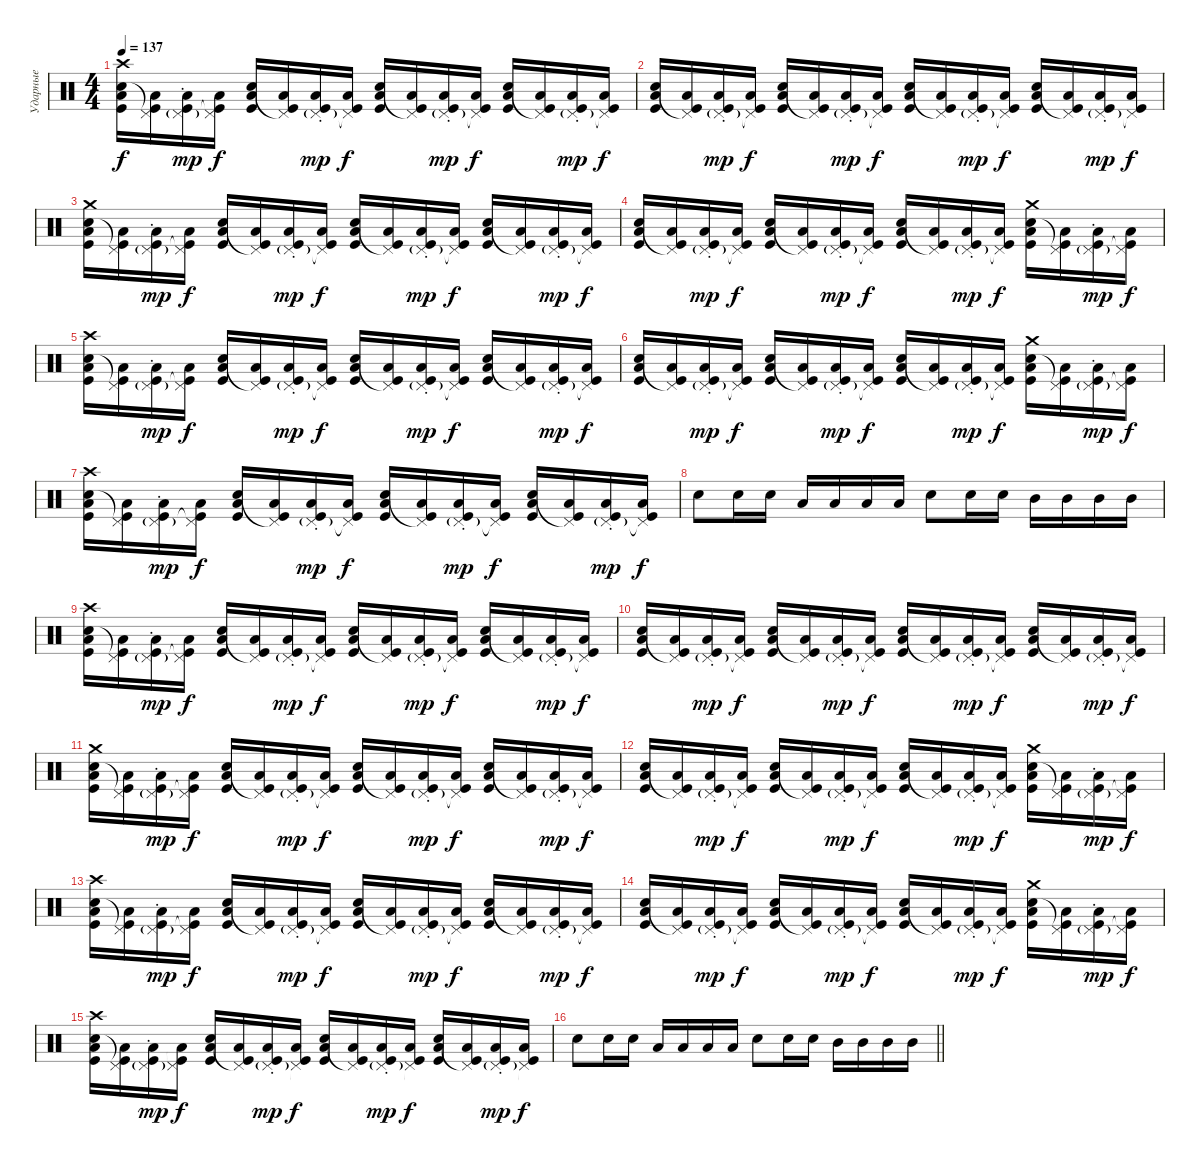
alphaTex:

\track ("Ударные" "Ударные") {instrument percussion}
\staff {score}
\articulation defaults
\ts (4 4)
\tempo 137
\clef neutral
\ks c
("Kick (hit)" "Low Tom (hit)" "Electric Snare (hit)" "Crash high (hit)").16{dy f} ("Kick (hit)" "Low Tom (hit)" "Pedal Hi-Hat (hit)"{t}).16 ("Kick (hit)" "Low Tom (hit)" "Pedal Hi-Hat (hit)"{g st}).16{dy mp} ("Kick (hit)" "Low Tom (hit)" "Pedal Hi-Hat (hit)"{t}).16{dy f} ("Kick (hit)" "Low Tom (hit)" "Electric Snare (hit)").16 ("Kick (hit)" "Low Tom (hit)" "Pedal Hi-Hat (hit)"{t}).16 ("Kick (hit)" "Low Tom (hit)" "Pedal Hi-Hat (hit)"{g st}).16{dy mp} ("Kick (hit)" "Low Tom (hit)" "Pedal Hi-Hat (hit)"{t}).16{dy f} ("Kick (hit)" "Low Tom (hit)" "Electric Snare (hit)").16 ("Kick (hit)" "Low Tom (hit)" "Pedal Hi-Hat (hit)"{t}).16 ("Kick (hit)" "Low Tom (hit)" "Pedal Hi-Hat (hit)"{g st}).16{dy mp} ("Kick (hit)" "Low Tom (hit)" "Pedal Hi-Hat (hit)"{t}).16{dy f} ("Kick (hit)" "Low Tom (hit)" "Electric Snare (hit)").16 ("Kick (hit)" "Low Tom (hit)" "Pedal Hi-Hat (hit)"{t}).16 ("Kick (hit)" "Low Tom (hit)" "Pedal Hi-Hat (hit)"{g st}).16{dy mp} ("Kick (hit)" "Low Tom (hit)" "Pedal Hi-Hat (hit)"{t}).16{dy f} |
("Kick (hit)" "Low Tom (hit)" "Electric Snare (hit)").16 ("Kick (hit)" "Low Tom (hit)" "Pedal Hi-Hat (hit)"{t}).16 ("Kick (hit)" "Low Tom (hit)" "Pedal Hi-Hat (hit)"{g st}).16{dy mp} ("Kick (hit)" "Low Tom (hit)" "Pedal Hi-Hat (hit)"{t}).16{dy f} ("Kick (hit)" "Low Tom (hit)" "Electric Snare (hit)").16 ("Kick (hit)" "Low Tom (hit)" "Pedal Hi-Hat (hit)"{t}).16 ("Kick (hit)" "Low Tom (hit)" "Pedal Hi-Hat (hit)"{g st}).16{dy mp} ("Kick (hit)" "Low Tom (hit)" "Pedal Hi-Hat (hit)"{t}).16{dy f} ("Kick (hit)" "Low Tom (hit)" "Electric Snare (hit)").16 ("Kick (hit)" "Low Tom (hit)" "Pedal Hi-Hat (hit)"{t}).16 ("Kick (hit)" "Low Tom (hit)" "Pedal Hi-Hat (hit)"{g st}).16{dy mp} ("Kick (hit)" "Low Tom (hit)" "Pedal Hi-Hat (hit)"{t}).16{dy f} ("Kick (hit)" "Low Tom (hit)" "Electric Snare (hit)").16 ("Kick (hit)" "Low Tom (hit)" "Pedal Hi-Hat (hit)"{t}).16 ("Kick (hit)" "Low Tom (hit)" "Pedal Hi-Hat (hit)"{g st}).16{dy mp} ("Kick (hit)" "Low Tom (hit)" "Pedal Hi-Hat (hit)"{t}).16{dy f} |
("Kick (hit)" "Low Tom (hit)" "Electric Snare (hit)" "Crash medium (hit)").16 ("Kick (hit)" "Low Tom (hit)" "Pedal Hi-Hat (hit)"{t}).16 ("Kick (hit)" "Low Tom (hit)" "Pedal Hi-Hat (hit)"{g st}).16{dy mp} ("Kick (hit)" "Low Tom (hit)" "Pedal Hi-Hat (hit)"{t}).16{dy f} ("Kick (hit)" "Low Tom (hit)" "Electric Snare (hit)").16 ("Kick (hit)" "Low Tom (hit)" "Pedal Hi-Hat (hit)"{t}).16 ("Kick (hit)" "Low Tom (hit)" "Pedal Hi-Hat (hit)"{g st}).16{dy mp} ("Kick (hit)" "Low Tom (hit)" "Pedal Hi-Hat (hit)"{t}).16{dy f} ("Kick (hit)" "Low Tom (hit)" "Electric Snare (hit)").16 ("Kick (hit)" "Low Tom (hit)" "Pedal Hi-Hat (hit)"{t}).16 ("Kick (hit)" "Low Tom (hit)" "Pedal Hi-Hat (hit)"{g st}).16{dy mp} ("Kick (hit)" "Low Tom (hit)" "Pedal Hi-Hat (hit)"{t}).16{dy f} ("Kick (hit)" "Low Tom (hit)" "Electric Snare (hit)").16 ("Kick (hit)" "Low Tom (hit)" "Pedal Hi-Hat (hit)"{t}).16 ("Kick (hit)" "Low Tom (hit)" "Pedal Hi-Hat (hit)"{g st}).16{dy mp} ("Kick (hit)" "Low Tom (hit)" "Pedal Hi-Hat (hit)"{t}).16{dy f} |
("Kick (hit)" "Low Tom (hit)" "Electric Snare (hit)").16 ("Kick (hit)" "Low Tom (hit)" "Pedal Hi-Hat (hit)"{t}).16 ("Kick (hit)" "Low Tom (hit)" "Pedal Hi-Hat (hit)"{g st}).16{dy mp} ("Kick (hit)" "Low Tom (hit)" "Pedal Hi-Hat (hit)"{t}).16{dy f} ("Kick (hit)" "Low Tom (hit)" "Electric Snare (hit)").16 ("Kick (hit)" "Low Tom (hit)" "Pedal Hi-Hat (hit)"{t}).16 ("Kick (hit)" "Low Tom (hit)" "Pedal Hi-Hat (hit)"{g st}).16{dy mp} ("Kick (hit)" "Low Tom (hit)" "Pedal Hi-Hat (hit)"{t}).16{dy f} ("Kick (hit)" "Low Tom (hit)" "Electric Snare (hit)").16 ("Kick (hit)" "Low Tom (hit)" "Pedal Hi-Hat (hit)"{t}).16 ("Kick (hit)" "Low Tom (hit)" "Pedal Hi-Hat (hit)"{g st}).16{dy mp} ("Kick (hit)" "Low Tom (hit)" "Pedal Hi-Hat (hit)"{t}).16{dy f} ("Kick (hit)" "Low Tom (hit)" "Electric Snare (hit)" "Crash medium (hit)").16 ("Kick (hit)" "Low Tom (hit)" "Pedal Hi-Hat (hit)"{t}).16 ("Kick (hit)" "Low Tom (hit)" "Pedal Hi-Hat (hit)"{g st}).16{dy mp} ("Kick (hit)" "Low Tom (hit)" "Pedal Hi-Hat (hit)"{t}).16{dy f} |
("Kick (hit)" "Low Tom (hit)" "Electric Snare (hit)" "Crash high (hit)").16 ("Kick (hit)" "Low Tom (hit)" "Pedal Hi-Hat (hit)"{t}).16 ("Kick (hit)" "Low Tom (hit)" "Pedal Hi-Hat (hit)"{g st}).16{dy mp} ("Kick (hit)" "Low Tom (hit)" "Pedal Hi-Hat (hit)"{t}).16{dy f} ("Kick (hit)" "Low Tom (hit)" "Electric Snare (hit)").16 ("Kick (hit)" "Low Tom (hit)" "Pedal Hi-Hat (hit)"{t}).16 ("Kick (hit)" "Low Tom (hit)" "Pedal Hi-Hat (hit)"{g st}).16{dy mp} ("Kick (hit)" "Low Tom (hit)" "Pedal Hi-Hat (hit)"{t}).16{dy f} ("Kick (hit)" "Low Tom (hit)" "Electric Snare (hit)").16 ("Kick (hit)" "Low Tom (hit)" "Pedal Hi-Hat (hit)"{t}).16 ("Kick (hit)" "Low Tom (hit)" "Pedal Hi-Hat (hit)"{g st}).16{dy mp} ("Kick (hit)" "Low Tom (hit)" "Pedal Hi-Hat (hit)"{t}).16{dy f} ("Kick (hit)" "Low Tom (hit)" "Electric Snare (hit)").16 ("Kick (hit)" "Low Tom (hit)" "Pedal Hi-Hat (hit)"{t}).16 ("Kick (hit)" "Low Tom (hit)" "Pedal Hi-Hat (hit)"{g st}).16{dy mp} ("Kick (hit)" "Low Tom (hit)" "Pedal Hi-Hat (hit)"{t}).16{dy f} |
("Kick (hit)" "Low Tom (hit)" "Electric Snare (hit)").16 ("Kick (hit)" "Low Tom (hit)" "Pedal Hi-Hat (hit)"{t}).16 ("Kick (hit)" "Low Tom (hit)" "Pedal Hi-Hat (hit)"{g st}).16{dy mp} ("Kick (hit)" "Low Tom (hit)" "Pedal Hi-Hat (hit)"{t}).16{dy f} ("Kick (hit)" "Low Tom (hit)" "Electric Snare (hit)").16 ("Kick (hit)" "Low Tom (hit)" "Pedal Hi-Hat (hit)"{t}).16 ("Kick (hit)" "Low Tom (hit)" "Pedal Hi-Hat (hit)"{g st}).16{dy mp} ("Kick (hit)" "Low Tom (hit)" "Pedal Hi-Hat (hit)"{t}).16{dy f} ("Kick (hit)" "Low Tom (hit)" "Electric Snare (hit)").16 ("Kick (hit)" "Low Tom (hit)" "Pedal Hi-Hat (hit)"{t}).16 ("Kick (hit)" "Low Tom (hit)" "Pedal Hi-Hat (hit)"{g st}).16{dy mp} ("Kick (hit)" "Low Tom (hit)" "Pedal Hi-Hat (hit)"{t}).16{dy f} ("Kick (hit)" "Low Tom (hit)" "Electric Snare (hit)" "Crash medium (hit)").16 ("Kick (hit)" "Low Tom (hit)" "Pedal Hi-Hat (hit)"{t}).16 ("Kick (hit)" "Low Tom (hit)" "Pedal Hi-Hat (hit)"{g st}).16{dy mp} ("Kick (hit)" "Low Tom (hit)" "Pedal Hi-Hat (hit)"{t}).16{dy f} |
("Kick (hit)" "Low Tom (hit)" "Electric Snare (hit)" "Crash high (hit)").16 ("Kick (hit)" "Low Tom (hit)" "Pedal Hi-Hat (hit)"{t}).16 ("Kick (hit)" "Low Tom (hit)" "Pedal Hi-Hat (hit)"{g st}).16{dy mp} ("Kick (hit)" "Low Tom (hit)" "Pedal Hi-Hat (hit)"{t}).16{dy f} ("Kick (hit)" "Low Tom (hit)" "Electric Snare (hit)").16 ("Kick (hit)" "Low Tom (hit)" "Pedal Hi-Hat (hit)"{t}).16 ("Kick (hit)" "Low Tom (hit)" "Pedal Hi-Hat (hit)"{g st}).16{dy mp} ("Kick (hit)" "Low Tom (hit)" "Pedal Hi-Hat (hit)"{t}).16{dy f} ("Kick (hit)" "Low Tom (hit)" "Electric Snare (hit)").16 ("Kick (hit)" "Low Tom (hit)" "Pedal Hi-Hat (hit)"{t}).16 ("Kick (hit)" "Low Tom (hit)" "Pedal Hi-Hat (hit)"{g st}).16{dy mp} ("Kick (hit)" "Low Tom (hit)" "Pedal Hi-Hat (hit)"{t}).16{dy f} ("Kick (hit)" "Low Tom (hit)" "Electric Snare (hit)").16 ("Kick (hit)" "Low Tom (hit)" "Pedal Hi-Hat (hit)"{t}).16 ("Kick (hit)" "Low Tom (hit)" "Pedal Hi-Hat (hit)"{g st}).16{dy mp} ("Kick (hit)" "Low Tom (hit)" "Pedal Hi-Hat (hit)"{t}).16{dy f} |
"Electric Snare (hit)".8 "Electric Snare (hit)".16 "Electric Snare (hit)".16 "Low Tom (hit)".16 "Low Tom (hit)".16 "Low Tom (hit)".16 "Low Tom (hit)".16 "Electric Snare (hit)".8 "Electric Snare (hit)".16 "Electric Snare (hit)".16 "Mid Tom (hit)".16 "Mid Tom (hit)".16 "Mid Tom (hit)".16 "Mid Tom (hit)".16 |
("Kick (hit)" "Low Tom (hit)" "Electric Snare (hit)" "Crash high (hit)").16 ("Kick (hit)" "Low Tom (hit)" "Pedal Hi-Hat (hit)"{t}).16 ("Kick (hit)" "Low Tom (hit)" "Pedal Hi-Hat (hit)"{g st}).16{dy mp} ("Kick (hit)" "Low Tom (hit)" "Pedal Hi-Hat (hit)"{t}).16{dy f} ("Kick (hit)" "Low Tom (hit)" "Electric Snare (hit)").16 ("Kick (hit)" "Low Tom (hit)" "Pedal Hi-Hat (hit)"{t}).16 ("Kick (hit)" "Low Tom (hit)" "Pedal Hi-Hat (hit)"{g st}).16{dy mp} ("Kick (hit)" "Low Tom (hit)" "Pedal Hi-Hat (hit)"{t}).16{dy f} ("Kick (hit)" "Low Tom (hit)" "Electric Snare (hit)").16 ("Kick (hit)" "Low Tom (hit)" "Pedal Hi-Hat (hit)"{t}).16 ("Kick (hit)" "Low Tom (hit)" "Pedal Hi-Hat (hit)"{g st}).16{dy mp} ("Kick (hit)" "Low Tom (hit)" "Pedal Hi-Hat (hit)"{t}).16{dy f} ("Kick (hit)" "Low Tom (hit)" "Electric Snare (hit)").16 ("Kick (hit)" "Low Tom (hit)" "Pedal Hi-Hat (hit)"{t}).16 ("Kick (hit)" "Low Tom (hit)" "Pedal Hi-Hat (hit)"{g st}).16{dy mp} ("Kick (hit)" "Low Tom (hit)" "Pedal Hi-Hat (hit)"{t}).16{dy f} |
("Kick (hit)" "Low Tom (hit)" "Electric Snare (hit)").16 ("Kick (hit)" "Low Tom (hit)" "Pedal Hi-Hat (hit)"{t}).16 ("Kick (hit)" "Low Tom (hit)" "Pedal Hi-Hat (hit)"{g st}).16{dy mp} ("Kick (hit)" "Low Tom (hit)" "Pedal Hi-Hat (hit)"{t}).16{dy f} ("Kick (hit)" "Low Tom (hit)" "Electric Snare (hit)").16 ("Kick (hit)" "Low Tom (hit)" "Pedal Hi-Hat (hit)"{t}).16 ("Kick (hit)" "Low Tom (hit)" "Pedal Hi-Hat (hit)"{g st}).16{dy mp} ("Kick (hit)" "Low Tom (hit)" "Pedal Hi-Hat (hit)"{t}).16{dy f} ("Kick (hit)" "Low Tom (hit)" "Electric Snare (hit)").16 ("Kick (hit)" "Low Tom (hit)" "Pedal Hi-Hat (hit)"{t}).16 ("Kick (hit)" "Low Tom (hit)" "Pedal Hi-Hat (hit)"{g st}).16{dy mp} ("Kick (hit)" "Low Tom (hit)" "Pedal Hi-Hat (hit)"{t}).16{dy f} ("Kick (hit)" "Low Tom (hit)" "Electric Snare (hit)").16 ("Kick (hit)" "Low Tom (hit)" "Pedal Hi-Hat (hit)"{t}).16 ("Kick (hit)" "Low Tom (hit)" "Pedal Hi-Hat (hit)"{g st}).16{dy mp} ("Kick (hit)" "Low Tom (hit)" "Pedal Hi-Hat (hit)"{t}).16{dy f} |
("Kick (hit)" "Low Tom (hit)" "Electric Snare (hit)" "Crash medium (hit)").16 ("Kick (hit)" "Low Tom (hit)" "Pedal Hi-Hat (hit)"{t}).16 ("Kick (hit)" "Low Tom (hit)" "Pedal Hi-Hat (hit)"{g st}).16{dy mp} ("Kick (hit)" "Low Tom (hit)" "Pedal Hi-Hat (hit)"{t}).16{dy f} ("Kick (hit)" "Low Tom (hit)" "Electric Snare (hit)").16 ("Kick (hit)" "Low Tom (hit)" "Pedal Hi-Hat (hit)"{t}).16 ("Kick (hit)" "Low Tom (hit)" "Pedal Hi-Hat (hit)"{g st}).16{dy mp} ("Kick (hit)" "Low Tom (hit)" "Pedal Hi-Hat (hit)"{t}).16{dy f} ("Kick (hit)" "Low Tom (hit)" "Electric Snare (hit)").16 ("Kick (hit)" "Low Tom (hit)" "Pedal Hi-Hat (hit)"{t}).16 ("Kick (hit)" "Low Tom (hit)" "Pedal Hi-Hat (hit)"{g st}).16{dy mp} ("Kick (hit)" "Low Tom (hit)" "Pedal Hi-Hat (hit)"{t}).16{dy f} ("Kick (hit)" "Low Tom (hit)" "Electric Snare (hit)").16 ("Kick (hit)" "Low Tom (hit)" "Pedal Hi-Hat (hit)"{t}).16 ("Kick (hit)" "Low Tom (hit)" "Pedal Hi-Hat (hit)"{g st}).16{dy mp} ("Kick (hit)" "Low Tom (hit)" "Pedal Hi-Hat (hit)"{t}).16{dy f} |
("Kick (hit)" "Low Tom (hit)" "Electric Snare (hit)").16 ("Kick (hit)" "Low Tom (hit)" "Pedal Hi-Hat (hit)"{t}).16 ("Kick (hit)" "Low Tom (hit)" "Pedal Hi-Hat (hit)"{g st}).16{dy mp} ("Kick (hit)" "Low Tom (hit)" "Pedal Hi-Hat (hit)"{t}).16{dy f} ("Kick (hit)" "Low Tom (hit)" "Electric Snare (hit)").16 ("Kick (hit)" "Low Tom (hit)" "Pedal Hi-Hat (hit)"{t}).16 ("Kick (hit)" "Low Tom (hit)" "Pedal Hi-Hat (hit)"{g st}).16{dy mp} ("Kick (hit)" "Low Tom (hit)" "Pedal Hi-Hat (hit)"{t}).16{dy f} ("Kick (hit)" "Low Tom (hit)" "Electric Snare (hit)").16 ("Kick (hit)" "Low Tom (hit)" "Pedal Hi-Hat (hit)"{t}).16 ("Kick (hit)" "Low Tom (hit)" "Pedal Hi-Hat (hit)"{g st}).16{dy mp} ("Kick (hit)" "Low Tom (hit)" "Pedal Hi-Hat (hit)"{t}).16{dy f} ("Kick (hit)" "Low Tom (hit)" "Electric Snare (hit)" "Crash medium (hit)").16 ("Kick (hit)" "Low Tom (hit)" "Pedal Hi-Hat (hit)"{t}).16 ("Kick (hit)" "Low Tom (hit)" "Pedal Hi-Hat (hit)"{g st}).16{dy mp} ("Kick (hit)" "Low Tom (hit)" "Pedal Hi-Hat (hit)"{t}).16{dy f} |
("Kick (hit)" "Low Tom (hit)" "Electric Snare (hit)" "Crash high (hit)").16 ("Kick (hit)" "Low Tom (hit)" "Pedal Hi-Hat (hit)"{t}).16 ("Kick (hit)" "Low Tom (hit)" "Pedal Hi-Hat (hit)"{g st}).16{dy mp} ("Kick (hit)" "Low Tom (hit)" "Pedal Hi-Hat (hit)"{t}).16{dy f} ("Kick (hit)" "Low Tom (hit)" "Electric Snare (hit)").16 ("Kick (hit)" "Low Tom (hit)" "Pedal Hi-Hat (hit)"{t}).16 ("Kick (hit)" "Low Tom (hit)" "Pedal Hi-Hat (hit)"{g st}).16{dy mp} ("Kick (hit)" "Low Tom (hit)" "Pedal Hi-Hat (hit)"{t}).16{dy f} ("Kick (hit)" "Low Tom (hit)" "Electric Snare (hit)").16 ("Kick (hit)" "Low Tom (hit)" "Pedal Hi-Hat (hit)"{t}).16 ("Kick (hit)" "Low Tom (hit)" "Pedal Hi-Hat (hit)"{g st}).16{dy mp} ("Kick (hit)" "Low Tom (hit)" "Pedal Hi-Hat (hit)"{t}).16{dy f} ("Kick (hit)" "Low Tom (hit)" "Electric Snare (hit)").16 ("Kick (hit)" "Low Tom (hit)" "Pedal Hi-Hat (hit)"{t}).16 ("Kick (hit)" "Low Tom (hit)" "Pedal Hi-Hat (hit)"{g st}).16{dy mp} ("Kick (hit)" "Low Tom (hit)" "Pedal Hi-Hat (hit)"{t}).16{dy f} |
("Kick (hit)" "Low Tom (hit)" "Electric Snare (hit)").16 ("Kick (hit)" "Low Tom (hit)" "Pedal Hi-Hat (hit)"{t}).16 ("Kick (hit)" "Low Tom (hit)" "Pedal Hi-Hat (hit)"{g st}).16{dy mp} ("Kick (hit)" "Low Tom (hit)" "Pedal Hi-Hat (hit)"{t}).16{dy f} ("Kick (hit)" "Low Tom (hit)" "Electric Snare (hit)").16 ("Kick (hit)" "Low Tom (hit)" "Pedal Hi-Hat (hit)"{t}).16 ("Kick (hit)" "Low Tom (hit)" "Pedal Hi-Hat (hit)"{g st}).16{dy mp} ("Kick (hit)" "Low Tom (hit)" "Pedal Hi-Hat (hit)"{t}).16{dy f} ("Kick (hit)" "Low Tom (hit)" "Electric Snare (hit)").16 ("Kick (hit)" "Low Tom (hit)" "Pedal Hi-Hat (hit)"{t}).16 ("Kick (hit)" "Low Tom (hit)" "Pedal Hi-Hat (hit)"{g st}).16{dy mp} ("Kick (hit)" "Low Tom (hit)" "Pedal Hi-Hat (hit)"{t}).16{dy f} ("Kick (hit)" "Low Tom (hit)" "Electric Snare (hit)" "Crash medium (hit)").16 ("Kick (hit)" "Low Tom (hit)" "Pedal Hi-Hat (hit)"{t}).16 ("Kick (hit)" "Low Tom (hit)" "Pedal Hi-Hat (hit)"{g st}).16{dy mp} ("Kick (hit)" "Low Tom (hit)" "Pedal Hi-Hat (hit)"{t}).16{dy f} |
("Kick (hit)" "Low Tom (hit)" "Electric Snare (hit)" "Crash high (hit)").16 ("Kick (hit)" "Low Tom (hit)" "Pedal Hi-Hat (hit)"{t}).16 ("Kick (hit)" "Low Tom (hit)" "Pedal Hi-Hat (hit)"{g st}).16{dy mp} ("Kick (hit)" "Low Tom (hit)" "Pedal Hi-Hat (hit)"{t}).16{dy f} ("Kick (hit)" "Low Tom (hit)" "Electric Snare (hit)").16 ("Kick (hit)" "Low Tom (hit)" "Pedal Hi-Hat (hit)"{t}).16 ("Kick (hit)" "Low Tom (hit)" "Pedal Hi-Hat (hit)"{g st}).16{dy mp} ("Kick (hit)" "Low Tom (hit)" "Pedal Hi-Hat (hit)"{t}).16{dy f} ("Kick (hit)" "Low Tom (hit)" "Electric Snare (hit)").16 ("Kick (hit)" "Low Tom (hit)" "Pedal Hi-Hat (hit)"{t}).16 ("Kick (hit)" "Low Tom (hit)" "Pedal Hi-Hat (hit)"{g st}).16{dy mp} ("Kick (hit)" "Low Tom (hit)" "Pedal Hi-Hat (hit)"{t}).16{dy f} ("Kick (hit)" "Low Tom (hit)" "Electric Snare (hit)").16 ("Kick (hit)" "Low Tom (hit)" "Pedal Hi-Hat (hit)"{t}).16 ("Kick (hit)" "Low Tom (hit)" "Pedal Hi-Hat (hit)"{g st}).16{dy mp} ("Kick (hit)" "Low Tom (hit)" "Pedal Hi-Hat (hit)"{t}).16{dy f} |
\barLineRight lightlight "Electric Snare (hit)".8 "Electric Snare (hit)".16 "Electric Snare (hit)".16 "Low Tom (hit)".16 "Low Tom (hit)".16 "Low Tom (hit)".16 "Low Tom (hit)".16 "Electric Snare (hit)".8 "Electric Snare (hit)".16 "Electric Snare (hit)".16 "Mid Tom (hit)".16 "Mid Tom (hit)".16 "Mid Tom (hit)".16 "Mid Tom (hit)".16
